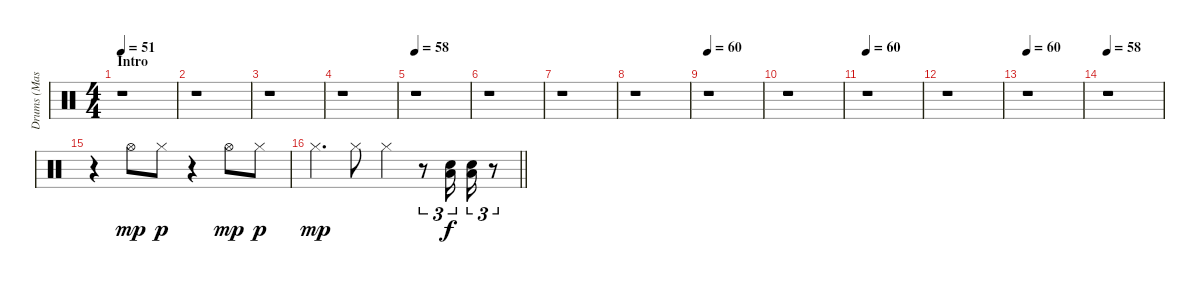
\track ("Drums (Mason)" "Drums (Mas") {instrument percussion}
\staff {score}
\articulation defaults
\ts (4 4)
\section ("" "Intro")
\tempo 51
\tempo 57
\tempo 51
\clef neutral
\ks c
r.1{dy mp volume 12} |
r.1 |
r.1 |
r.1 |
\tempo 58
r.1 |
r.1 |
r.1 |
r.1 |
\tempo 60
r.1 |
r.1 |
\tempo 60
r.1 |
r.1 |
\tempo 60
r.1 |
\tempo 58
r.1 |
r.4 "Hi-Hat (open)".8 "Hi-Hat (closed)".8{dy p} r.4 "Hi-Hat (open)".8{dy mp} "Hi-Hat (closed)".8{dy p} |
\barLineRight lightlight "Hi-Hat (closed)".4{d dy mp} "Hi-Hat (closed)".8 "Hi-Hat (closed)".4
r.8{tu (3 2)} ("Electric Snare (hit)" "Low Tom (hit)").16{tu (3 2) dy f} ("Electric Snare (hit)" "Low Tom (hit)").16{tu (3 2)} r.8{tu (3 2)}
